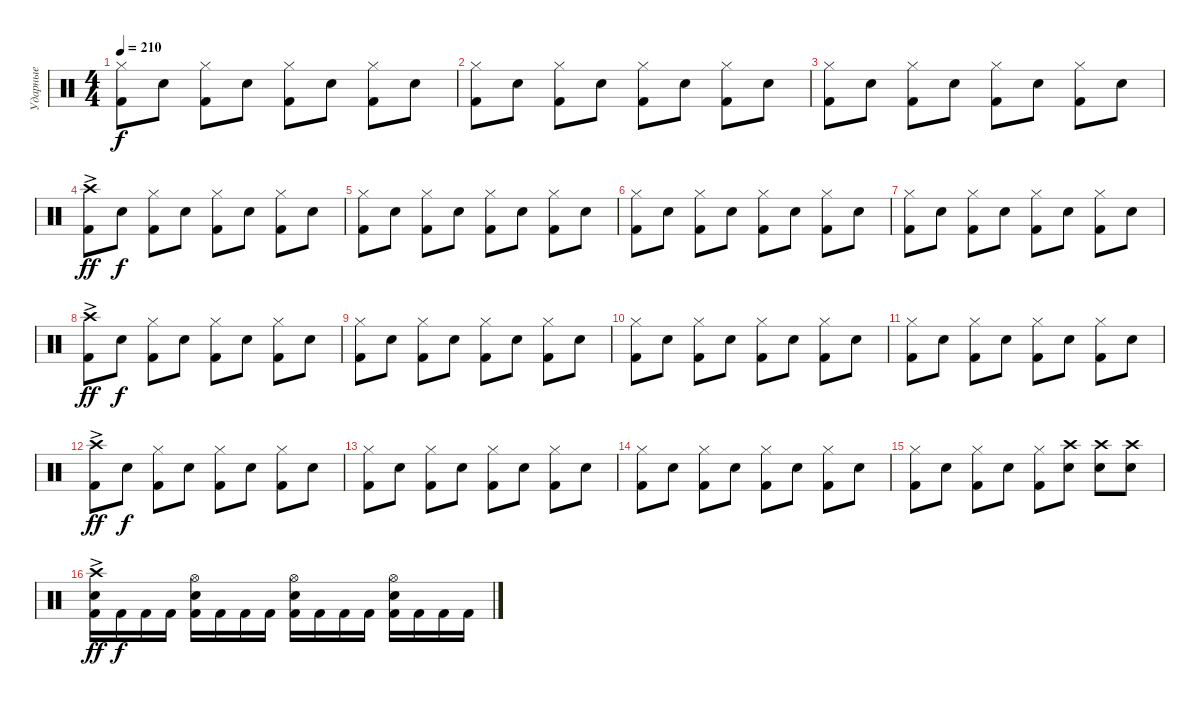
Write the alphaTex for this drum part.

\track ("Ударные" "Ударные") {instrument percussion}
\staff {score}
\articulation defaults
\ts (4 4)
\tempo 210
\clef neutral
\ks c
("Kick (hit) 2" "Hi-Hat (closed)").8{dy f} "Snare (hit) 2".8 ("Kick (hit) 2" "Hi-Hat (closed)").8 "Snare (hit) 2".8 ("Kick (hit) 2" "Hi-Hat (closed)").8 "Snare (hit) 2".8 ("Kick (hit) 2" "Hi-Hat (closed)").8 "Snare (hit) 2".8 |
("Kick (hit) 2" "Hi-Hat (closed)").8 "Snare (hit) 2".8 ("Kick (hit) 2" "Hi-Hat (closed)").8 "Snare (hit) 2".8 ("Kick (hit) 2" "Hi-Hat (closed)").8 "Snare (hit) 2".8 ("Kick (hit) 2" "Hi-Hat (closed)").8 "Snare (hit) 2".8 |
("Kick (hit) 2" "Hi-Hat (closed)").8 "Snare (hit) 2".8 ("Kick (hit) 2" "Hi-Hat (closed)").8 "Snare (hit) 2".8 ("Kick (hit) 2" "Hi-Hat (closed)").8 "Snare (hit) 2".8 ("Kick (hit) 2" "Hi-Hat (closed)").8 "Snare (hit) 2".8 |
("Kick (hit) 2" "Crash high (hit)"{ac}).8{dy ff} "Snare (hit) 2".8{dy f} ("Kick (hit) 2" "Hi-Hat (closed)").8 "Snare (hit) 2".8 ("Kick (hit) 2" "Hi-Hat (closed)").8 "Snare (hit) 2".8 ("Kick (hit) 2" "Hi-Hat (closed)").8 "Snare (hit) 2".8 |
("Kick (hit) 2" "Hi-Hat (closed)").8 "Snare (hit) 2".8 ("Kick (hit) 2" "Hi-Hat (closed)").8 "Snare (hit) 2".8 ("Kick (hit) 2" "Hi-Hat (closed)").8 "Snare (hit) 2".8 ("Kick (hit) 2" "Hi-Hat (closed)").8 "Snare (hit) 2".8 |
("Kick (hit) 2" "Hi-Hat (closed)").8 "Snare (hit) 2".8 ("Kick (hit) 2" "Hi-Hat (closed)").8 "Snare (hit) 2".8 ("Kick (hit) 2" "Hi-Hat (closed)").8 "Snare (hit) 2".8 ("Kick (hit) 2" "Hi-Hat (closed)").8 "Snare (hit) 2".8 |
("Kick (hit) 2" "Hi-Hat (closed)").8 "Snare (hit) 2".8 ("Kick (hit) 2" "Hi-Hat (closed)").8 "Snare (hit) 2".8 ("Kick (hit) 2" "Hi-Hat (closed)").8 "Snare (hit) 2".8 ("Kick (hit) 2" "Hi-Hat (closed)").8 "Snare (hit) 2".8 |
("Kick (hit) 2" "Crash high (hit)"{ac}).8{dy ff} "Snare (hit) 2".8{dy f} ("Kick (hit) 2" "Hi-Hat (closed)").8 "Snare (hit) 2".8 ("Kick (hit) 2" "Hi-Hat (closed)").8 "Snare (hit) 2".8 ("Kick (hit) 2" "Hi-Hat (closed)").8 "Snare (hit) 2".8 |
("Kick (hit) 2" "Hi-Hat (closed)").8 "Snare (hit) 2".8 ("Kick (hit) 2" "Hi-Hat (closed)").8 "Snare (hit) 2".8 ("Kick (hit) 2" "Hi-Hat (closed)").8 "Snare (hit) 2".8 ("Kick (hit) 2" "Hi-Hat (closed)").8 "Snare (hit) 2".8 |
("Kick (hit) 2" "Hi-Hat (closed)").8 "Snare (hit) 2".8 ("Kick (hit) 2" "Hi-Hat (closed)").8 "Snare (hit) 2".8 ("Kick (hit) 2" "Hi-Hat (closed)").8 "Snare (hit) 2".8 ("Kick (hit) 2" "Hi-Hat (closed)").8 "Snare (hit) 2".8 |
("Kick (hit) 2" "Hi-Hat (closed)").8 "Snare (hit) 2".8 ("Kick (hit) 2" "Hi-Hat (closed)").8 "Snare (hit) 2".8 ("Kick (hit) 2" "Hi-Hat (closed)").8 "Snare (hit) 2".8 ("Kick (hit) 2" "Hi-Hat (closed)").8 "Snare (hit) 2".8 |
("Kick (hit) 2" "Crash high (hit)"{ac}).8{dy ff} "Snare (hit) 2".8{dy f} ("Kick (hit) 2" "Hi-Hat (closed)").8 "Snare (hit) 2".8 ("Kick (hit) 2" "Hi-Hat (closed)").8 "Snare (hit) 2".8 ("Kick (hit) 2" "Hi-Hat (closed)").8 "Snare (hit) 2".8 |
("Kick (hit) 2" "Hi-Hat (closed)").8 "Snare (hit) 2".8 ("Kick (hit) 2" "Hi-Hat (closed)").8 "Snare (hit) 2".8 ("Kick (hit) 2" "Hi-Hat (closed)").8 "Snare (hit) 2".8 ("Kick (hit) 2" "Hi-Hat (closed)").8 "Snare (hit) 2".8 |
("Kick (hit) 2" "Hi-Hat (closed)").8 "Snare (hit) 2".8 ("Kick (hit) 2" "Hi-Hat (closed)").8 "Snare (hit) 2".8 ("Kick (hit) 2" "Hi-Hat (closed)").8 "Snare (hit) 2".8 ("Kick (hit) 2" "Hi-Hat (closed)").8 "Snare (hit) 2".8 |
("Kick (hit) 2" "Hi-Hat (closed)").8 "Snare (hit) 2".8 ("Kick (hit) 2" "Hi-Hat (closed)").8 "Snare (hit) 2".8 ("Kick (hit) 2" "Hi-Hat (closed)").8 ("Snare (hit) 2" "Crash high (hit)").8 ("Snare (hit) 2" "Crash high (hit)").8 ("Snare (hit) 2" "Crash high (hit)").8 |
("Kick (hit) 2" "Snare (hit) 2" "Crash high (hit)"{ac}).16{dy ff} "Kick (hit) 2".16{dy f} "Kick (hit) 2".16 "Kick (hit) 2".16 ("Kick (hit) 2" "Snare (hit) 2" "Hi-Hat (open)").16 "Kick (hit) 2".16 "Kick (hit) 2".16 "Kick (hit) 2".16 ("Kick (hit) 2" "Snare (hit) 2" "Hi-Hat (open)").16 "Kick (hit) 2".16 "Kick (hit) 2".16 "Kick (hit) 2".16 ("Kick (hit) 2" "Snare (hit) 2" "Hi-Hat (open)").16 "Kick (hit) 2".16 "Kick (hit) 2".16 "Kick (hit) 2".16
